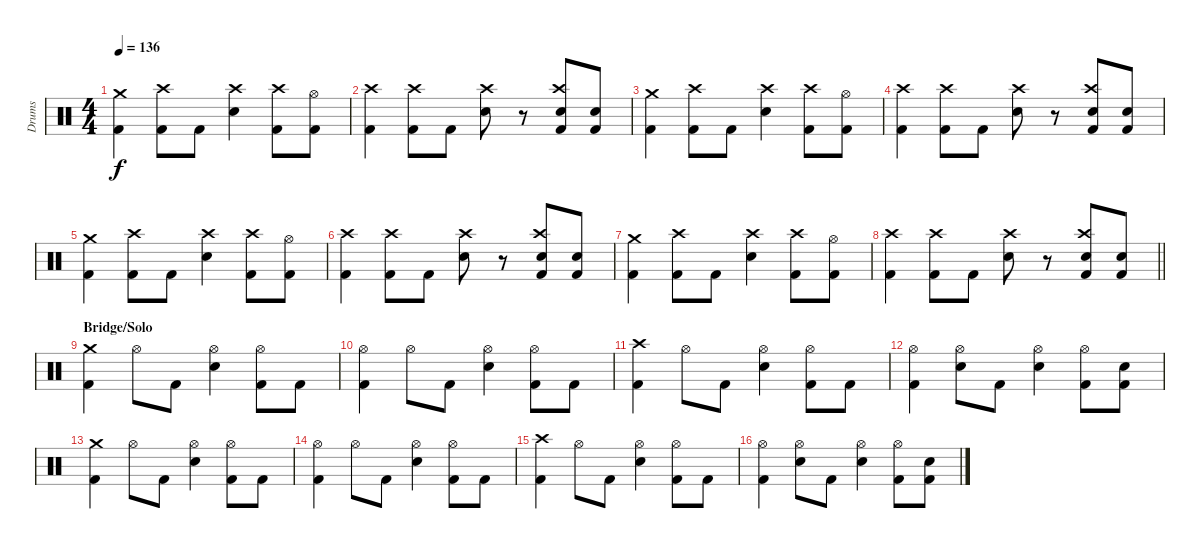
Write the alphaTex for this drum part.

\track ("Drums" "Drums") {instrument percussion}
\staff {score}
\articulation defaults
\ts (4 4)
\tempo 136
\clef neutral
\ks c
("Crash medium (hit)" "Kick (hit) 2").4{dy f} ("Crash high (hit)" "Kick (hit) 2").8 "Kick (hit) 2".8 ("Crash high (hit)" "Snare (hit) 2").4 ("Crash high (hit)" "Kick (hit) 2").8 ("Hi-Hat (open)" "Kick (hit) 2").8 |
("Crash high (hit)" "Kick (hit) 2").4 ("Crash high (hit)" "Kick (hit) 2").8 "Kick (hit) 2".8 ("Crash high (hit)" "Snare (hit) 2").8 r.8 ("Crash high (hit)" "Snare (hit) 2" "Kick (hit) 2").8 ("Snare (hit) 2" "Kick (hit) 2").8 |
("Crash medium (hit)" "Kick (hit) 2").4 ("Crash high (hit)" "Kick (hit) 2").8 "Kick (hit) 2".8 ("Crash high (hit)" "Snare (hit) 2").4 ("Crash high (hit)" "Kick (hit) 2").8 ("Hi-Hat (open)" "Kick (hit) 2").8 |
("Crash high (hit)" "Kick (hit) 2").4 ("Crash high (hit)" "Kick (hit) 2").8 "Kick (hit) 2".8 ("Crash high (hit)" "Snare (hit) 2").8 r.8 ("Crash high (hit)" "Snare (hit) 2" "Kick (hit) 2").8 ("Snare (hit) 2" "Kick (hit) 2").8 |
("Crash medium (hit)" "Kick (hit) 2").4 ("Crash high (hit)" "Kick (hit) 2").8 "Kick (hit) 2".8 ("Crash high (hit)" "Snare (hit) 2").4 ("Crash high (hit)" "Kick (hit) 2").8 ("Hi-Hat (open)" "Kick (hit) 2").8 |
("Crash high (hit)" "Kick (hit) 2").4 ("Crash high (hit)" "Kick (hit) 2").8 "Kick (hit) 2".8 ("Crash high (hit)" "Snare (hit) 2").8 r.8 ("Crash high (hit)" "Snare (hit) 2" "Kick (hit) 2").8 ("Snare (hit) 2" "Kick (hit) 2").8 |
("Crash medium (hit)" "Kick (hit) 2").4 ("Crash high (hit)" "Kick (hit) 2").8 "Kick (hit) 2".8 ("Crash high (hit)" "Snare (hit) 2").4 ("Crash high (hit)" "Kick (hit) 2").8 ("Hi-Hat (open)" "Kick (hit) 2").8 |
\barLineRight lightlight
("Crash high (hit)" "Kick (hit) 2").4 ("Crash high (hit)" "Kick (hit) 2").8 "Kick (hit) 2".8 ("Crash high (hit)" "Snare (hit) 2").8 r.8 ("Crash high (hit)" "Snare (hit) 2" "Kick (hit) 2").8 ("Snare (hit) 2" "Kick (hit) 2").8 |
\section ("" "Bridge/Solo")
("Crash medium (hit)" "Kick (hit) 2").4 "Hi-Hat (open)".8 "Kick (hit) 2".8 ("Hi-Hat (open)" "Snare (hit) 2").4 ("Hi-Hat (open)" "Kick (hit) 2").8 "Kick (hit) 2".8 |
("Hi-Hat (open)" "Kick (hit) 2").4 "Hi-Hat (open)".8 "Kick (hit) 2".8 ("Hi-Hat (open)" "Snare (hit) 2").4 ("Hi-Hat (open)" "Kick (hit) 2").8 "Kick (hit) 2".8 |
("Crash high (hit)" "Kick (hit) 2").4 "Hi-Hat (open)".8 "Kick (hit) 2".8 ("Hi-Hat (open)" "Snare (hit) 2").4 ("Hi-Hat (open)" "Kick (hit) 2").8 "Kick (hit) 2".8 |
("Hi-Hat (open)" "Kick (hit) 2").4 ("Hi-Hat (open)" "Snare (hit) 2").8 "Kick (hit) 2".8 ("Hi-Hat (open)" "Snare (hit) 2").4 ("Hi-Hat (open)" "Kick (hit) 2").8 ("Snare (hit) 2" "Kick (hit) 2").8 |
("Crash medium (hit)" "Kick (hit) 2").4 "Hi-Hat (open)".8 "Kick (hit) 2".8 ("Hi-Hat (open)" "Snare (hit) 2").4 ("Hi-Hat (open)" "Kick (hit) 2").8 "Kick (hit) 2".8 |
("Hi-Hat (open)" "Kick (hit) 2").4 "Hi-Hat (open)".8 "Kick (hit) 2".8 ("Hi-Hat (open)" "Snare (hit) 2").4 ("Hi-Hat (open)" "Kick (hit) 2").8 "Kick (hit) 2".8 |
("Crash high (hit)" "Kick (hit) 2").4 "Hi-Hat (open)".8 "Kick (hit) 2".8 ("Hi-Hat (open)" "Snare (hit) 2").4 ("Hi-Hat (open)" "Kick (hit) 2").8 "Kick (hit) 2".8 |
("Hi-Hat (open)" "Kick (hit) 2").4 ("Hi-Hat (open)" "Snare (hit) 2").8 "Kick (hit) 2".8 ("Hi-Hat (open)" "Snare (hit) 2").4 ("Hi-Hat (open)" "Kick (hit) 2").8 ("Snare (hit) 2" "Kick (hit) 2").8
